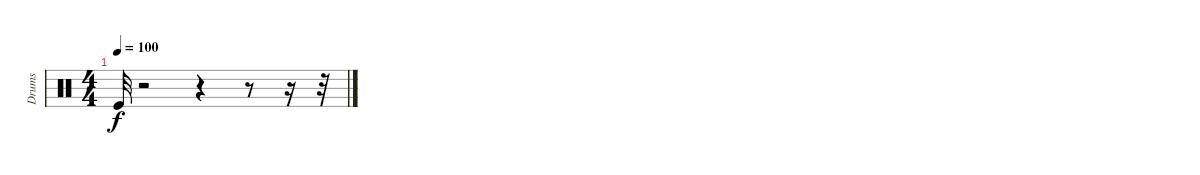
\track ("Drums" "Drums") {instrument percussion}
\staff {score}
\articulation defaults
\ts (4 4)
\tempo 100
\clef neutral
\ks c "Kick (hit)".32{dy f}
r.2 r.4 r.8 r.16 r.32
